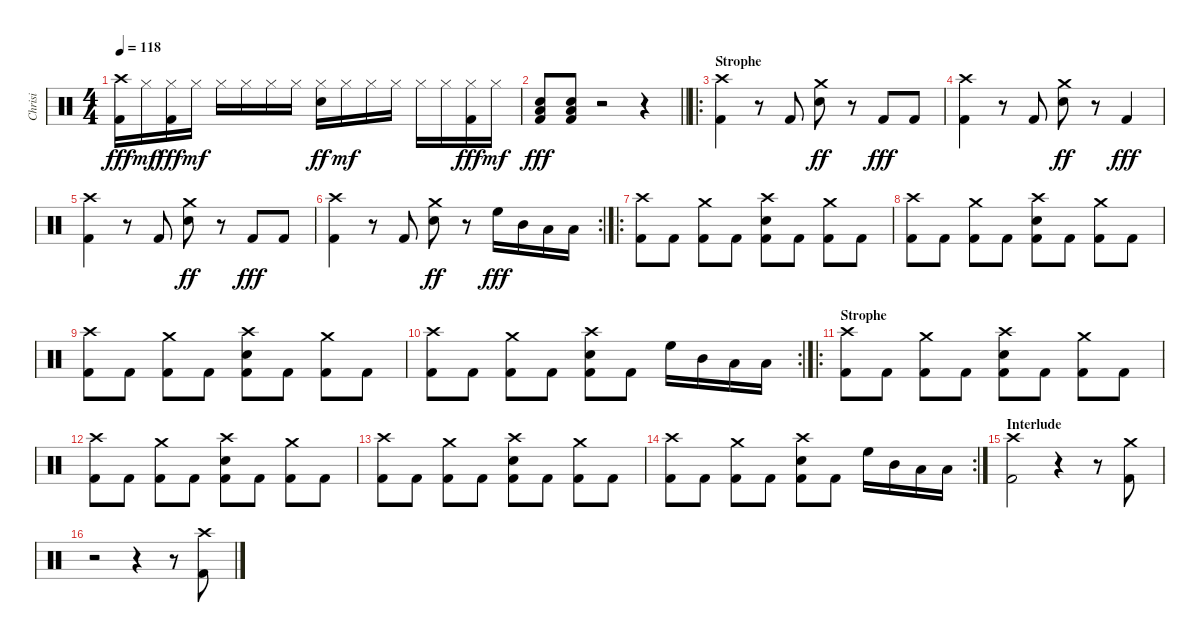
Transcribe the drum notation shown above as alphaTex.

\track ("Chrisi" "Chrisi") {instrument percussion}
\staff {score}
\articulation defaults
\ts (4 4)
\tempo 118
\clef neutral
\ks c
("Crash high (hit)" "Kick (hit) 2").16{dy fff} "Hi-Hat (closed)".16{dy mf} ("Hi-Hat (closed)" "Kick (hit) 2").16{dy fff} "Hi-Hat (closed)".16{dy mf} "Hi-Hat (closed)".16 "Hi-Hat (closed)".16 "Hi-Hat (closed)".16 "Hi-Hat (closed)".16 ("Hi-Hat (closed)" "Electric Snare (hit)").16{dy ff} "Hi-Hat (closed)".16{dy mf} "Hi-Hat (closed)".16 "Hi-Hat (closed)".16 "Hi-Hat (closed)".16 "Hi-Hat (closed)".16 ("Hi-Hat (closed)" "Kick (hit) 2").16{dy fff} "Hi-Hat (closed)".16{dy mf} |
\barLineRight lightlight
("Low Floor Tom (hit)" "Electric Snare (hit)" "Kick (hit) 2").8{dy fff} ("Low Floor Tom (hit)" "Electric Snare (hit)" "Kick (hit) 2").8 r.2 r.4 |
\ro
\section ("" "Strophe")
("Crash high (hit)" "Kick (hit) 2").4 r.8 "Kick (hit) 2".8 ("Crash medium (hit)" "Electric Snare (hit)").8{dy ff} r.8 "Kick (hit) 2".8{dy fff} "Kick (hit) 2".8 |
("Crash high (hit)" "Kick (hit) 2").4 r.8 "Kick (hit) 2".8 ("Crash medium (hit)" "Electric Snare (hit)").8{dy ff} r.8 "Kick (hit) 2".4{dy fff} |
("Crash high (hit)" "Kick (hit) 2").4 r.8 "Kick (hit) 2".8 ("Crash medium (hit)" "Electric Snare (hit)").8{dy ff} r.8 "Kick (hit) 2".8{dy fff} "Kick (hit) 2".8 |
\rc 2
("Crash high (hit)" "Kick (hit) 2").4 r.8 "Kick (hit) 2".8 ("Crash medium (hit)" "Electric Snare (hit)").8{dy ff} r.8 "High Floor Tom (hit)".16{dy fff} "Mid Tom (hit)".16 "Low Floor Tom (hit)".16 "Low Floor Tom (hit)".16 |
\ro
("Crash high (hit)" "Kick (hit) 2").8 "Kick (hit) 2".8 ("Crash medium (hit)" "Kick (hit) 2").8 "Kick (hit) 2".8 ("Crash high (hit)" "Electric Snare (hit)" "Kick (hit) 2").8 "Kick (hit) 2".8 ("Crash medium (hit)" "Kick (hit) 2").8 "Kick (hit) 2".8 |
("Crash high (hit)" "Kick (hit) 2").8 "Kick (hit) 2".8 ("Crash medium (hit)" "Kick (hit) 2").8 "Kick (hit) 2".8 ("Crash high (hit)" "Electric Snare (hit)" "Kick (hit) 2").8 "Kick (hit) 2".8 ("Crash medium (hit)" "Kick (hit) 2").8 "Kick (hit) 2".8 |
("Crash high (hit)" "Kick (hit) 2").8 "Kick (hit) 2".8 ("Crash medium (hit)" "Kick (hit) 2").8 "Kick (hit) 2".8 ("Crash high (hit)" "Electric Snare (hit)" "Kick (hit) 2").8 "Kick (hit) 2".8 ("Crash medium (hit)" "Kick (hit) 2").8 "Kick (hit) 2".8 |
\rc 2
("Crash high (hit)" "Kick (hit) 2").8 "Kick (hit) 2".8 ("Crash medium (hit)" "Kick (hit) 2").8 "Kick (hit) 2".8 ("Crash high (hit)" "Electric Snare (hit)" "Kick (hit) 2").8 "Kick (hit) 2".8 "High Floor Tom (hit)".16 "Mid Tom (hit)".16 "Low Floor Tom (hit)".16 "Low Floor Tom (hit)".16 |
\ro
\section ("" "Strophe")
("Crash high (hit)" "Kick (hit) 2").8 "Kick (hit) 2".8 ("Crash medium (hit)" "Kick (hit) 2").8 "Kick (hit) 2".8 ("Crash high (hit)" "Electric Snare (hit)" "Kick (hit) 2").8 "Kick (hit) 2".8 ("Crash medium (hit)" "Kick (hit) 2").8 "Kick (hit) 2".8 |
("Crash high (hit)" "Kick (hit) 2").8 "Kick (hit) 2".8 ("Crash medium (hit)" "Kick (hit) 2").8 "Kick (hit) 2".8 ("Crash high (hit)" "Electric Snare (hit)" "Kick (hit) 2").8 "Kick (hit) 2".8 ("Crash medium (hit)" "Kick (hit) 2").8 "Kick (hit) 2".8 |
("Crash high (hit)" "Kick (hit) 2").8 "Kick (hit) 2".8 ("Crash medium (hit)" "Kick (hit) 2").8 "Kick (hit) 2".8 ("Crash high (hit)" "Electric Snare (hit)" "Kick (hit) 2").8 "Kick (hit) 2".8 ("Crash medium (hit)" "Kick (hit) 2").8 "Kick (hit) 2".8 |
\rc 2
("Crash high (hit)" "Kick (hit) 2").8 "Kick (hit) 2".8 ("Crash medium (hit)" "Kick (hit) 2").8 "Kick (hit) 2".8 ("Crash high (hit)" "Electric Snare (hit)" "Kick (hit) 2").8 "Kick (hit) 2".8 "High Floor Tom (hit)".16 "Mid Tom (hit)".16 "Low Floor Tom (hit)".16 "Low Floor Tom (hit)".16 |
\section ("" "Interlude")
("Crash high (hit)" "Kick (hit) 2").2 r.4 r.8 ("Crash medium (hit)" "Kick (hit) 2").8 |
r.2 r.4 r.8 ("Crash high (hit)" "Kick (hit) 2").8
